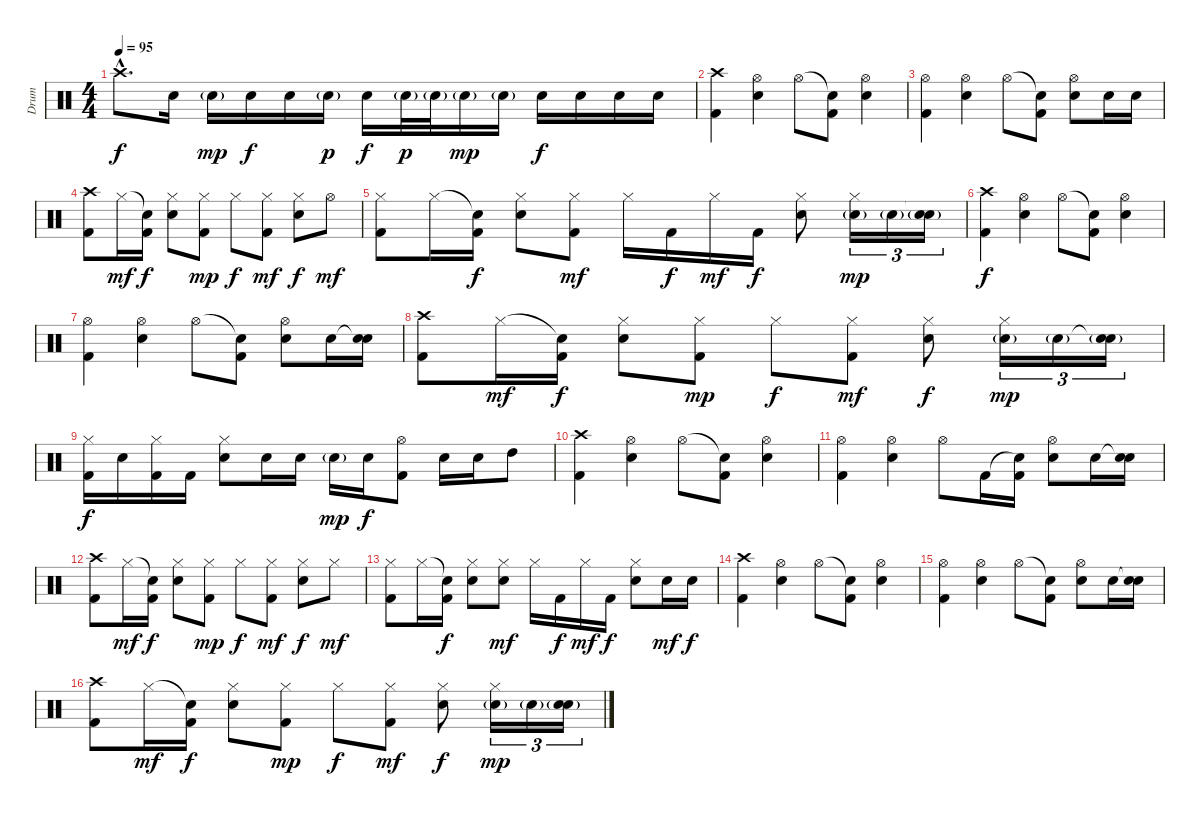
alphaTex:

\track ("Drum" "Drum") {instrument percussion}
\staff {score}
\articulation defaults
\ts (4 4)
\tempo 95
\clef neutral
\ks c "Crash high (hit)"{hac}.8{d dy f} "Electric Snare (hit)".16 "Electric Snare (hit)"{g}.16{dy mp} "Electric Snare (hit)".16{dy f} "Electric Snare (hit)".16 "Electric Snare (hit)"{g}.16{dy p} "Electric Snare (hit)".16{dy f} "Electric Snare (hit)"{g}.32{dy p} "Electric Snare (hit)"{g}.32 "Electric Snare (hit)"{g}.16{dy mp} "Electric Snare (hit)"{g}.16 "Electric Snare (hit)".16{dy f} "Electric Snare (hit)".16 "Electric Snare (hit)".16 "Electric Snare (hit)".16
|
("Crash high (hit)" "Kick (hit) 2").4 ("Hi-Hat (open)" "Electric Snare (hit)").4 "Hi-Hat (open)".8 ("Snare (hit)"{t} "Kick (hit) 2").8 ("Hi-Hat (open)" "Electric Snare (hit)").4 |
("Hi-Hat (open)" "Kick (hit) 2").4 ("Hi-Hat (open)" "Electric Snare (hit)").4 "Hi-Hat (open)".8 ("Snare (hit)"{t} "Kick (hit) 2").8 ("Hi-Hat (open)" "Electric Snare (hit)").8 "Electric Snare (hit)".16 "Electric Snare (hit)".16 |
("Crash high (hit)" "Kick (hit) 2").8 "Hi-Hat (closed)".16{dy mf} ("Snare (hit)"{t} "Kick (hit) 2").16{dy f} ("Hi-Hat (closed)" "Electric Snare (hit)").8 ("Hi-Hat (closed)" "Kick (hit) 2").8{dy mp} "Hi-Hat (closed)".8{dy f} ("Hi-Hat (closed)" "Kick (hit) 2").8{dy mf} ("Hi-Hat (closed)" "Electric Snare (hit)").8{dy f} "Hi-Hat (open)".8{dy mf} |
("Hi-Hat (closed)" "Kick (hit) 2").8 "Hi-Hat (closed)".16 ("Snare (hit)"{t} "Kick (hit) 2").16{dy f} ("Hi-Hat (closed)" "Electric Snare (hit)").8 ("Hi-Hat (closed)" "Kick (hit) 2").8{dy mf} "Hi-Hat (closed)".16 "Kick (hit) 2".16{dy f} "Hi-Hat (closed)".16{dy mf} "Kick (hit) 2".16{dy f} ("Hi-Hat (closed)" "Electric Snare (hit)").8 ("Hi-Hat (closed)" "Electric Snare (hit)"{g}).16{tu (3 2) dy mp} "Electric Snare (hit)"{g}.16{tu (3 2)} ("Snare (hit)"{t} "Electric Snare (hit)"{g}).16{tu (3 2)} |
("Crash high (hit)" "Kick (hit) 2").4{dy f} ("Hi-Hat (open)" "Electric Snare (hit)").4 "Hi-Hat (open)".8 ("Snare (hit)"{t} "Kick (hit) 2").8 ("Hi-Hat (open)" "Electric Snare (hit)").4 |
("Hi-Hat (open)" "Kick (hit) 2").4 ("Hi-Hat (open)" "Electric Snare (hit)").4 "Hi-Hat (open)".8 ("Snare (hit)"{t} "Kick (hit) 2").8 ("Hi-Hat (open)" "Electric Snare (hit)").8 "Electric Snare (hit)".16 ("Snare (hit)"{t} "Electric Snare (hit)").16 |
("Crash high (hit)" "Kick (hit) 2").8 "Hi-Hat (closed)".16{dy mf} ("Snare (hit)"{t} "Kick (hit) 2").16{dy f} ("Hi-Hat (closed)" "Electric Snare (hit)").8 ("Hi-Hat (closed)" "Kick (hit) 2").8{dy mp} "Hi-Hat (closed)".8{dy f} ("Hi-Hat (closed)" "Kick (hit) 2").8{dy mf} ("Hi-Hat (closed)" "Electric Snare (hit)").8{dy f} ("Hi-Hat (closed)" "Electric Snare (hit)"{g}).16{tu (3 2) dy mp} "Electric Snare (hit)"{g}.16{tu (3 2)} ("Snare (hit)"{t} "Electric Snare (hit)"{g}).16{tu (3 2)} |
("Hi-Hat (closed)" "Kick (hit) 2").16{dy f} "Electric Snare (hit)".16 ("Hi-Hat (closed)" "Kick (hit) 2").16 "Kick (hit) 2".16 ("Hi-Hat (closed)" "Electric Snare (hit)").8 "Electric Snare (hit)".16 "Electric Snare (hit)".16 "Electric Snare (hit)"{g}.16{dy mp} "Electric Snare (hit)".16{dy f} ("Hi-Hat (open)" "Kick (hit) 2").8 "Electric Snare (hit)".16 "Electric Snare (hit)".16 "High Tom (hit)".8 |
("Crash high (hit)" "Kick (hit) 2").4 ("Hi-Hat (open)" "Electric Snare (hit)").4 "Hi-Hat (open)".8 ("Snare (hit)"{t} "Kick (hit) 2").8 ("Hi-Hat (open)" "Electric Snare (hit)").4 |
("Hi-Hat (open)" "Kick (hit) 2").4 ("Hi-Hat (open)" "Electric Snare (hit)").4 "Hi-Hat (open)".8 "Kick (hit) 2".16 ("Snare (hit)"{t} "Kick (hit) 2").16 ("Hi-Hat (open)" "Electric Snare (hit)").8 "Electric Snare (hit)".16 ("Snare (hit)"{t} "Electric Snare (hit)").16 |
("Crash high (hit)" "Kick (hit) 2").8 "Hi-Hat (closed)".16{dy mf} ("Snare (hit)"{t} "Kick (hit) 2").16{dy f} ("Hi-Hat (closed)" "Electric Snare (hit)").8 ("Hi-Hat (closed)" "Kick (hit) 2").8{dy mp} "Hi-Hat (closed)".8{dy f} ("Hi-Hat (closed)" "Kick (hit) 2").8{dy mf} ("Hi-Hat (closed)" "Electric Snare (hit)").8{dy f} "Hi-Hat (closed)".8{dy mf} |
("Hi-Hat (closed)" "Kick (hit) 2").8 "Hi-Hat (closed)".16 ("Snare (hit)"{t} "Kick (hit) 2").16{dy f} ("Hi-Hat (closed)" "Electric Snare (hit)").8 ("Hi-Hat (closed)" "Electric Snare (hit)").8{dy mf} "Hi-Hat (closed)".16 "Kick (hit) 2".16{dy f} "Hi-Hat (closed)".16{dy mf} "Kick (hit) 2".16{dy f} ("Hi-Hat (closed)" "Electric Snare (hit)").8 "Electric Snare (hit)".16{dy mf} "Electric Snare (hit)".16{dy f} |
("Crash high (hit)" "Kick (hit) 2").4 ("Hi-Hat (open)" "Electric Snare (hit)").4 "Hi-Hat (open)".8 ("Snare (hit)"{t} "Kick (hit) 2").8 ("Hi-Hat (open)" "Electric Snare (hit)").4 |
("Hi-Hat (open)" "Kick (hit) 2").4 ("Hi-Hat (open)" "Electric Snare (hit)").4 "Hi-Hat (open)".8 ("Snare (hit)"{t} "Kick (hit) 2").8 ("Hi-Hat (open)" "Electric Snare (hit)").8 "Electric Snare (hit)".16 ("Snare (hit)"{t} "Electric Snare (hit)").16 |
("Crash high (hit)" "Kick (hit) 2").8 "Hi-Hat (closed)".16{dy mf} ("Snare (hit)"{t} "Kick (hit) 2").16{dy f} ("Hi-Hat (closed)" "Electric Snare (hit)").8 ("Hi-Hat (closed)" "Kick (hit) 2").8{dy mp} "Hi-Hat (closed)".8{dy f} ("Hi-Hat (closed)" "Kick (hit) 2").8{dy mf} ("Hi-Hat (closed)" "Electric Snare (hit)").8{dy f} ("Hi-Hat (closed)" "Electric Snare (hit)"{g}).16{tu (3 2) dy mp} "Electric Snare (hit)"{g}.16{tu (3 2)} ("Snare (hit)"{t} "Electric Snare (hit)"{g}).16{tu (3 2)}
